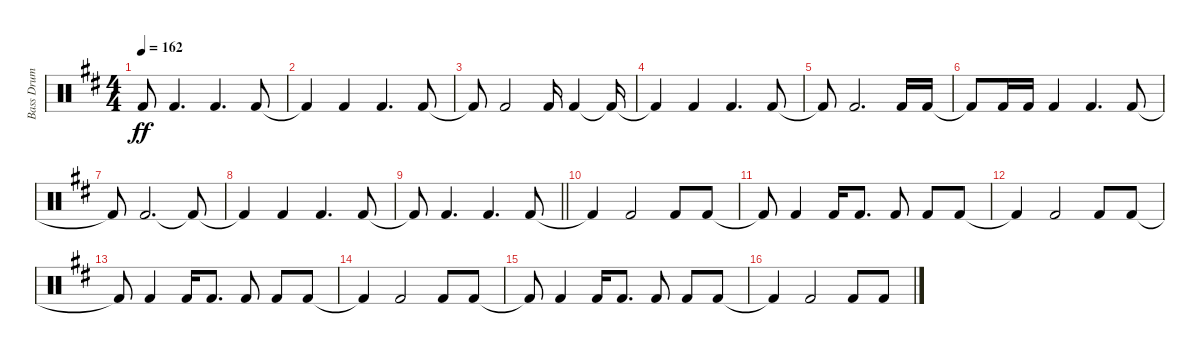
\track ("Bass Drum" "Bass Drum") {instrument percussion}
\staff {score}
\articulation defaults
\ts (4 4)
\tempo 162
\clef neutral
\ks bminor "Kick (hit) 2"{t}.8{dy ff} "Kick (hit) 2".4{d} "Kick (hit) 2".4{d} "Kick (hit) 2".8
|
"Kick (hit) 2"{t}.4 "Kick (hit) 2".4 "Kick (hit) 2".4{d} "Kick (hit) 2".8 |
"Kick (hit) 2"{t}.8 "Kick (hit) 2".2 "Kick (hit) 2".16 "Kick (hit) 2".4 "Kick (hit) 2"{t}.16 |
"Kick (hit) 2"{t}.4 "Kick (hit) 2".4 "Kick (hit) 2".4{d} "Kick (hit) 2".8 |
"Kick (hit) 2"{t}.8 "Kick (hit) 2".2{d} "Kick (hit) 2".16 "Kick (hit) 2".16 |
"Kick (hit) 2"{t}.8 "Kick (hit) 2".16 "Kick (hit) 2".16 "Kick (hit) 2".4 "Kick (hit) 2".4{d} "Kick (hit) 2".8 |
"Kick (hit) 2"{t}.8 "Kick (hit) 2".2{d} "Kick (hit) 2"{t}.8 |
"Kick (hit) 2"{t}.4 "Kick (hit) 2".4 "Kick (hit) 2".4{d} "Kick (hit) 2".8 |
\barLineRight lightlight "Kick (hit) 2"{t}.8 "Kick (hit) 2".4{d} "Kick (hit) 2".4{d} "Kick (hit) 2".8
|
"Kick (hit) 2"{t}.4 "Kick (hit) 2".2 "Kick (hit) 2".8 "Kick (hit) 2".8 |
"Kick (hit) 2"{t}.8 "Kick (hit) 2".4 "Kick (hit) 2".16 "Kick (hit) 2".8{d} "Kick (hit) 2".8 "Kick (hit) 2".8 "Kick (hit) 2".8 |
"Kick (hit) 2"{t}.4 "Kick (hit) 2".2 "Kick (hit) 2".8 "Kick (hit) 2".8 |
"Kick (hit) 2"{t}.8 "Kick (hit) 2".4 "Kick (hit) 2".16 "Kick (hit) 2".8{d} "Kick (hit) 2".8 "Kick (hit) 2".8 "Kick (hit) 2".8 |
"Kick (hit) 2"{t}.4 "Kick (hit) 2".2 "Kick (hit) 2".8 "Kick (hit) 2".8 |
"Kick (hit) 2"{t}.8 "Kick (hit) 2".4 "Kick (hit) 2".16 "Kick (hit) 2".8{d} "Kick (hit) 2".8 "Kick (hit) 2".8 "Kick (hit) 2".8 |
"Kick (hit) 2"{t}.4 "Kick (hit) 2".2 "Kick (hit) 2".8 "Kick (hit) 2".8
